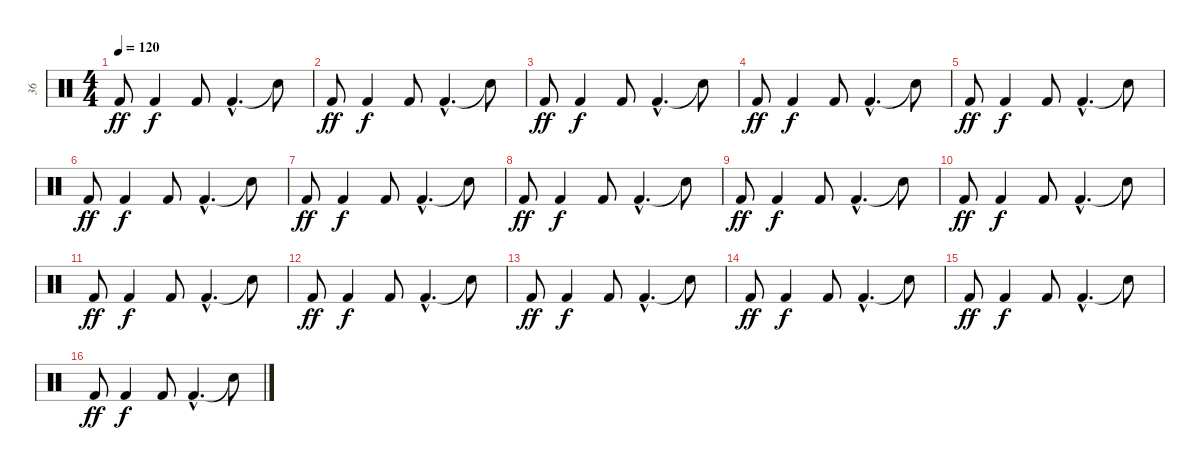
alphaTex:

\track ("36" "36") {instrument percussion}
\staff {score}
\articulation defaults
\ts (4 4)
\tempo 120
\clef neutral
\ks c "Kick (hit) 2".8{dy ff volume 4} "Kick (hit) 2".4{dy f} "Kick (hit) 2".8 "Kick (hit) 2"{hac}.4{d} "Snare (hit)"{t}.8
|
"Kick (hit) 2".8{dy ff} "Kick (hit) 2".4{dy f} "Kick (hit) 2".8 "Kick (hit) 2"{hac}.4{d} "Snare (hit)"{t}.8 |
"Kick (hit) 2".8{dy ff volume 5} "Kick (hit) 2".4{dy f} "Kick (hit) 2".8 "Kick (hit) 2"{hac}.4{d} "Snare (hit)"{t}.8 |
"Kick (hit) 2".8{dy ff} "Kick (hit) 2".4{dy f} "Kick (hit) 2".8 "Kick (hit) 2"{hac}.4{d} "Snare (hit)"{t}.8 |
"Kick (hit) 2".8{dy ff volume 6} "Kick (hit) 2".4{dy f} "Kick (hit) 2".8 "Kick (hit) 2"{hac}.4{d} "Snare (hit)"{t}.8 |
"Kick (hit) 2".8{dy ff} "Kick (hit) 2".4{dy f} "Kick (hit) 2".8 "Kick (hit) 2"{hac}.4{d} "Snare (hit)"{t}.8 |
"Kick (hit) 2".8{dy ff volume 7} "Kick (hit) 2".4{dy f} "Kick (hit) 2".8 "Kick (hit) 2"{hac}.4{d} "Snare (hit)"{t}.8 |
"Kick (hit) 2".8{dy ff} "Kick (hit) 2".4{dy f} "Kick (hit) 2".8 "Kick (hit) 2"{hac}.4{d} "Snare (hit)"{t}.8 |
"Kick (hit) 2".8{dy ff volume 8} "Kick (hit) 2".4{dy f} "Kick (hit) 2".8 "Kick (hit) 2"{hac}.4{d} "Snare (hit)"{t}.8 |
"Kick (hit) 2".8{dy ff} "Kick (hit) 2".4{dy f} "Kick (hit) 2".8 "Kick (hit) 2"{hac}.4{d} "Snare (hit)"{t}.8 |
"Kick (hit) 2".8{dy ff volume 9} "Kick (hit) 2".4{dy f} "Kick (hit) 2".8 "Kick (hit) 2"{hac}.4{d} "Snare (hit)"{t}.8 |
"Kick (hit) 2".8{dy ff} "Kick (hit) 2".4{dy f} "Kick (hit) 2".8 "Kick (hit) 2"{hac}.4{d} "Snare (hit)"{t}.8 |
"Kick (hit) 2".8{dy ff volume 10} "Kick (hit) 2".4{dy f} "Kick (hit) 2".8 "Kick (hit) 2"{hac}.4{d} "Snare (hit)"{t}.8 |
"Kick (hit) 2".8{dy ff} "Kick (hit) 2".4{dy f} "Kick (hit) 2".8 "Kick (hit) 2"{hac}.4{d} "Snare (hit)"{t}.8 |
"Kick (hit) 2".8{dy ff volume 11} "Kick (hit) 2".4{dy f} "Kick (hit) 2".8 "Kick (hit) 2"{hac}.4{d} "Snare (hit)"{t}.8 |
"Kick (hit) 2".8{dy ff} "Kick (hit) 2".4{dy f} "Kick (hit) 2".8 "Kick (hit) 2"{hac}.4{d} "Snare (hit)"{t}.8
